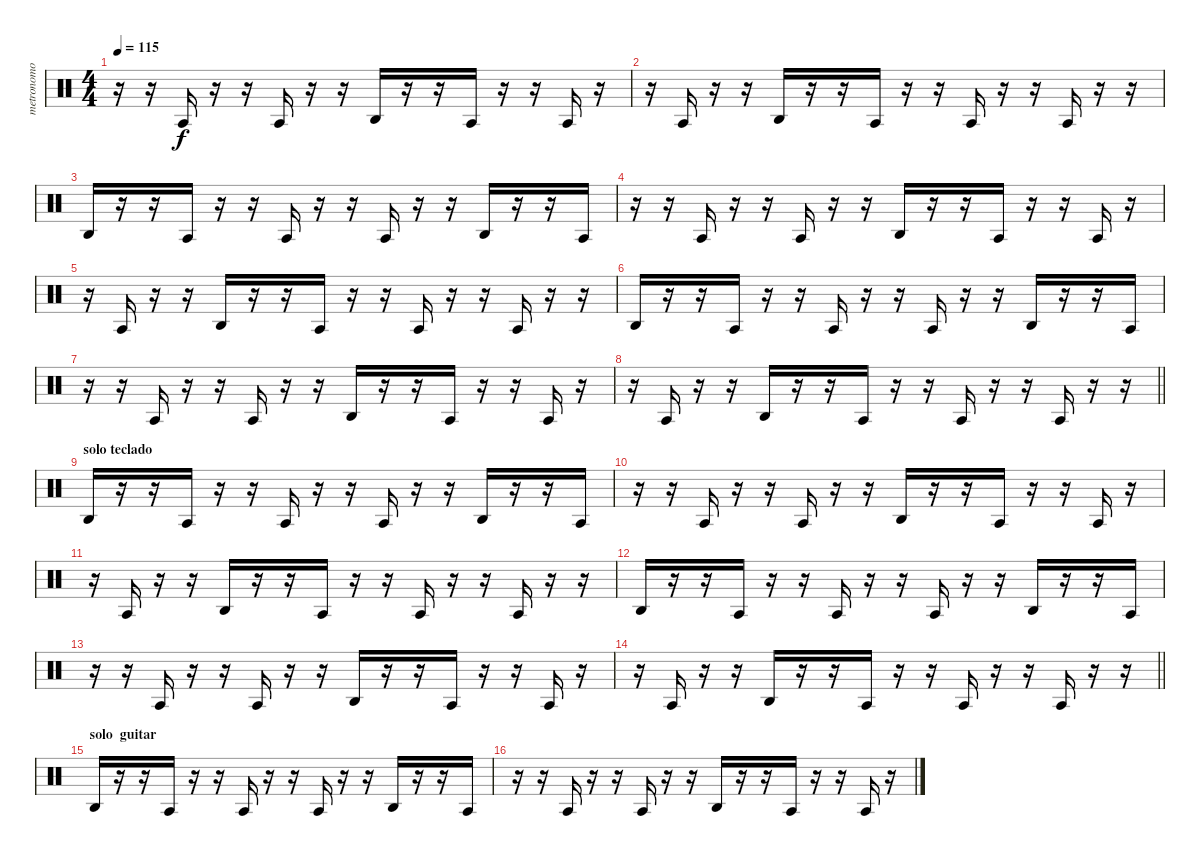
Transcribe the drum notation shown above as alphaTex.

\track ("metronomo" "metronomo") {mute instrument percussion}
\staff {score}
\articulation defaults
\ts (4 4)
\tempo 115
\clef neutral
\ks c
r.16{dy f} r.16 "Agogo tow (hit)".16 r.16 r.16 "Agogo tow (hit)".16 r.16 r.16 "Agogo high (hit)".16 r.16 r.16 "Agogo tow (hit)".16 r.16 r.16 "Agogo tow (hit)".16 r.16 |
r.16 "Agogo tow (hit)".16 r.16 r.16 "Agogo high (hit)".16 r.16 r.16 "Agogo tow (hit)".16 r.16 r.16 "Agogo tow (hit)".16 r.16 r.16 "Agogo tow (hit)".16 r.16 r.16 |
"Agogo high (hit)".16 r.16 r.16 "Agogo tow (hit)".16 r.16 r.16 "Agogo tow (hit)".16 r.16 r.16 "Agogo tow (hit)".16 r.16 r.16 "Agogo high (hit)".16 r.16 r.16 "Agogo tow (hit)".16 |
r.16 r.16 "Agogo tow (hit)".16 r.16 r.16 "Agogo tow (hit)".16 r.16 r.16 "Agogo high (hit)".16 r.16 r.16 "Agogo tow (hit)".16 r.16 r.16 "Agogo tow (hit)".16 r.16 |
r.16 "Agogo tow (hit)".16 r.16 r.16 "Agogo high (hit)".16 r.16 r.16 "Agogo tow (hit)".16 r.16 r.16 "Agogo tow (hit)".16 r.16 r.16 "Agogo tow (hit)".16 r.16 r.16 |
"Agogo high (hit)".16 r.16 r.16 "Agogo tow (hit)".16 r.16 r.16 "Agogo tow (hit)".16 r.16 r.16 "Agogo tow (hit)".16 r.16 r.16 "Agogo high (hit)".16 r.16 r.16 "Agogo tow (hit)".16 |
r.16 r.16 "Agogo tow (hit)".16 r.16 r.16 "Agogo tow (hit)".16 r.16 r.16 "Agogo high (hit)".16 r.16 r.16 "Agogo tow (hit)".16 r.16 r.16 "Agogo tow (hit)".16 r.16 |
\barLineRight lightlight
r.16 "Agogo tow (hit)".16 r.16 r.16 "Agogo high (hit)".16 r.16 r.16 "Agogo tow (hit)".16 r.16 r.16 "Agogo tow (hit)".16 r.16 r.16 "Agogo tow (hit)".16 r.16 r.16 |
\section ("" "solo teclado")
"Agogo high (hit)".16 r.16 r.16 "Agogo tow (hit)".16 r.16 r.16 "Agogo tow (hit)".16 r.16 r.16 "Agogo tow (hit)".16 r.16 r.16 "Agogo high (hit)".16 r.16 r.16 "Agogo tow (hit)".16 |
r.16 r.16 "Agogo tow (hit)".16 r.16 r.16 "Agogo tow (hit)".16 r.16 r.16 "Agogo high (hit)".16 r.16 r.16 "Agogo tow (hit)".16 r.16 r.16 "Agogo tow (hit)".16 r.16 |
r.16 "Agogo tow (hit)".16 r.16 r.16 "Agogo high (hit)".16 r.16 r.16 "Agogo tow (hit)".16 r.16 r.16 "Agogo tow (hit)".16 r.16 r.16 "Agogo tow (hit)".16 r.16 r.16 |
"Agogo high (hit)".16 r.16 r.16 "Agogo tow (hit)".16 r.16 r.16 "Agogo tow (hit)".16 r.16 r.16 "Agogo tow (hit)".16 r.16 r.16 "Agogo high (hit)".16 r.16 r.16 "Agogo tow (hit)".16 |
r.16 r.16 "Agogo tow (hit)".16 r.16 r.16 "Agogo tow (hit)".16 r.16 r.16 "Agogo high (hit)".16 r.16 r.16 "Agogo tow (hit)".16 r.16 r.16 "Agogo tow (hit)".16 r.16 |
\barLineRight lightlight
r.16 "Agogo tow (hit)".16 r.16 r.16 "Agogo high (hit)".16 r.16 r.16 "Agogo tow (hit)".16 r.16 r.16 "Agogo tow (hit)".16 r.16 r.16 "Agogo tow (hit)".16 r.16 r.16 |
\section ("" "solo  guitar")
"Agogo high (hit)".16 r.16 r.16 "Agogo tow (hit)".16 r.16 r.16 "Agogo tow (hit)".16 r.16 r.16 "Agogo tow (hit)".16 r.16 r.16 "Agogo high (hit)".16 r.16 r.16 "Agogo tow (hit)".16 |
r.16 r.16 "Agogo tow (hit)".16 r.16 r.16 "Agogo tow (hit)".16 r.16 r.16 "Agogo high (hit)".16 r.16 r.16 "Agogo tow (hit)".16 r.16 r.16 "Agogo tow (hit)".16 r.16
